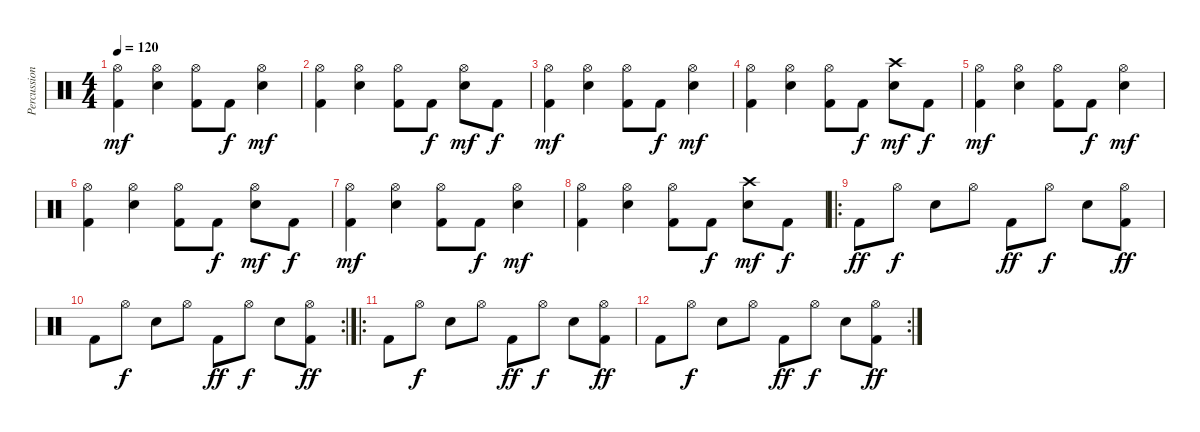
\track ("Percussion" "Percussion") {instrument percussion}
\staff {score}
\articulation defaults
\ts (4 4)
\tempo 120
\clef neutral
\ks c
("Hi-Hat (open)" "Kick (hit) 2").4{dy mf} ("Hi-Hat (open)" "Electric Snare (hit)").4 ("Hi-Hat (open)" "Kick (hit) 2").8 "Kick (hit) 2".8{dy f} ("Hi-Hat (open)" "Electric Snare (hit)").4{dy mf} |
("Hi-Hat (open)" "Kick (hit) 2").4 ("Hi-Hat (open)" "Electric Snare (hit)").4 ("Hi-Hat (open)" "Kick (hit) 2").8 "Kick (hit) 2".8{dy f} ("Hi-Hat (open)" "Electric Snare (hit)").8{dy mf} "Kick (hit) 2".8{dy f} |
("Hi-Hat (open)" "Kick (hit) 2").4{dy mf} ("Hi-Hat (open)" "Electric Snare (hit)").4 ("Hi-Hat (open)" "Kick (hit) 2").8 "Kick (hit) 2".8{dy f} ("Hi-Hat (open)" "Electric Snare (hit)").4{dy mf} |
("Hi-Hat (open)" "Kick (hit) 2").4 ("Hi-Hat (open)" "Electric Snare (hit)").4 ("Hi-Hat (open)" "Kick (hit) 2").8 "Kick (hit) 2".8{dy f} ("Crash high (hit)" "Electric Snare (hit)").8{dy mf} "Kick (hit) 2".8{dy f} |
("Hi-Hat (open)" "Kick (hit) 2").4{dy mf} ("Hi-Hat (open)" "Electric Snare (hit)").4 ("Hi-Hat (open)" "Kick (hit) 2").8 "Kick (hit) 2".8{dy f} ("Hi-Hat (open)" "Electric Snare (hit)").4{dy mf} |
("Hi-Hat (open)" "Kick (hit) 2").4 ("Hi-Hat (open)" "Electric Snare (hit)").4 ("Hi-Hat (open)" "Kick (hit) 2").8 "Kick (hit) 2".8{dy f} ("Hi-Hat (open)" "Electric Snare (hit)").8{dy mf} "Kick (hit) 2".8{dy f} |
("Hi-Hat (open)" "Kick (hit) 2").4{dy mf} ("Hi-Hat (open)" "Electric Snare (hit)").4 ("Hi-Hat (open)" "Kick (hit) 2").8 "Kick (hit) 2".8{dy f} ("Hi-Hat (open)" "Electric Snare (hit)").4{dy mf} |
("Hi-Hat (open)" "Kick (hit) 2").4 ("Hi-Hat (open)" "Electric Snare (hit)").4 ("Hi-Hat (open)" "Kick (hit) 2").8 "Kick (hit) 2".8{dy f} ("Crash high (hit)" "Electric Snare (hit)").8{dy mf} "Kick (hit) 2".8{dy f} |
\ro "Kick (hit) 2".8{dy ff} "Hi-Hat (open)".8{dy f} "Electric Snare (hit)".8 "Hi-Hat (open)".8 "Kick (hit) 2".8{dy ff} "Hi-Hat (open)".8{dy f} "Electric Snare (hit)".8
("Hi-Hat (open)" "Kick (hit) 2").8{dy ff} |
\rc 2 "Kick (hit) 2".8 "Hi-Hat (open)".8{dy f} "Electric Snare (hit)".8 "Hi-Hat (open)".8 "Kick (hit) 2".8{dy ff} "Hi-Hat (open)".8{dy f} "Electric Snare (hit)".8
("Hi-Hat (open)" "Kick (hit) 2").8{dy ff} |
\ro "Kick (hit) 2".8 "Hi-Hat (open)".8{dy f} "Electric Snare (hit)".8 "Hi-Hat (open)".8 "Kick (hit) 2".8{dy ff} "Hi-Hat (open)".8{dy f} "Electric Snare (hit)".8
("Hi-Hat (open)" "Kick (hit) 2").8{dy ff} |
\rc 2 "Kick (hit) 2".8 "Hi-Hat (open)".8{dy f} "Electric Snare (hit)".8 "Hi-Hat (open)".8 "Kick (hit) 2".8{dy ff} "Hi-Hat (open)".8{dy f} "Electric Snare (hit)".8
("Hi-Hat (open)" "Kick (hit) 2").8{dy ff}
